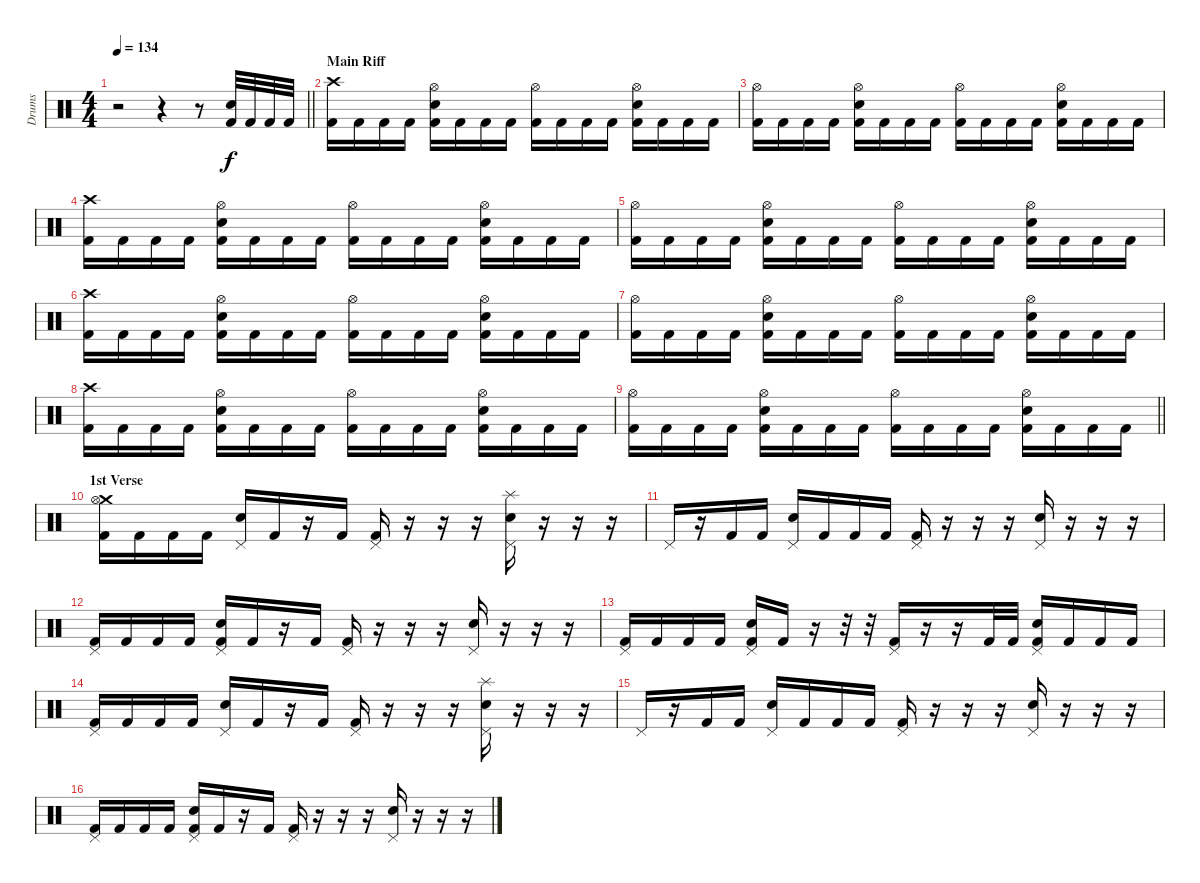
\track ("Drums" "Drums") {instrument percussion}
\staff {score}
\articulation defaults
\ts (4 4)
\tempo 134
\clef neutral
\barLineRight lightlight
\ks c
r.2{dy f} r.4 r.8 ("Snare (hit) 2" "Kick (hit) 2").32 "Kick (hit) 2".32 "Kick (hit) 2".32 "Kick (hit) 2".32 |
\section ("" "Main Riff")
("Crash high (hit)" "Kick (hit) 2").16 "Kick (hit) 2".16 "Kick (hit) 2".16 "Kick (hit) 2".16 ("Hi-Hat (open)" "Snare (hit) 2" "Kick (hit) 2").16 "Kick (hit) 2".16 "Kick (hit) 2".16 "Kick (hit) 2".16 ("Hi-Hat (open)" "Kick (hit) 2").16 "Kick (hit) 2".16 "Kick (hit) 2".16 "Kick (hit) 2".16 ("Hi-Hat (open)" "Snare (hit) 2" "Kick (hit) 2").16 "Kick (hit) 2".16 "Kick (hit) 2".16 "Kick (hit) 2".16 |
("Hi-Hat (open)" "Kick (hit) 2").16 "Kick (hit) 2".16 "Kick (hit) 2".16 "Kick (hit) 2".16 ("Hi-Hat (open)" "Snare (hit) 2" "Kick (hit) 2").16 "Kick (hit) 2".16 "Kick (hit) 2".16 "Kick (hit) 2".16 ("Hi-Hat (open)" "Kick (hit) 2").16 "Kick (hit) 2".16 "Kick (hit) 2".16 "Kick (hit) 2".16 ("Hi-Hat (open)" "Snare (hit) 2" "Kick (hit) 2").16 "Kick (hit) 2".16 "Kick (hit) 2".16 "Kick (hit) 2".16 |
("Crash high (hit)" "Kick (hit) 2").16 "Kick (hit) 2".16 "Kick (hit) 2".16 "Kick (hit) 2".16 ("Hi-Hat (open)" "Snare (hit) 2" "Kick (hit) 2").16 "Kick (hit) 2".16 "Kick (hit) 2".16 "Kick (hit) 2".16 ("Hi-Hat (open)" "Kick (hit) 2").16 "Kick (hit) 2".16 "Kick (hit) 2".16 "Kick (hit) 2".16 ("Hi-Hat (open)" "Snare (hit) 2" "Kick (hit) 2").16 "Kick (hit) 2".16 "Kick (hit) 2".16 "Kick (hit) 2".16 |
("Hi-Hat (open)" "Kick (hit) 2").16 "Kick (hit) 2".16 "Kick (hit) 2".16 "Kick (hit) 2".16 ("Hi-Hat (open)" "Snare (hit) 2" "Kick (hit) 2").16 "Kick (hit) 2".16 "Kick (hit) 2".16 "Kick (hit) 2".16 ("Hi-Hat (open)" "Kick (hit) 2").16 "Kick (hit) 2".16 "Kick (hit) 2".16 "Kick (hit) 2".16 ("Hi-Hat (open)" "Snare (hit) 2" "Kick (hit) 2").16 "Kick (hit) 2".16 "Kick (hit) 2".16 "Kick (hit) 2".16 |
("Crash high (hit)" "Kick (hit) 2").16 "Kick (hit) 2".16 "Kick (hit) 2".16 "Kick (hit) 2".16 ("Hi-Hat (open)" "Snare (hit) 2" "Kick (hit) 2").16 "Kick (hit) 2".16 "Kick (hit) 2".16 "Kick (hit) 2".16 ("Hi-Hat (open)" "Kick (hit) 2").16 "Kick (hit) 2".16 "Kick (hit) 2".16 "Kick (hit) 2".16 ("Hi-Hat (open)" "Snare (hit) 2" "Kick (hit) 2").16 "Kick (hit) 2".16 "Kick (hit) 2".16 "Kick (hit) 2".16 |
("Hi-Hat (open)" "Kick (hit) 2").16 "Kick (hit) 2".16 "Kick (hit) 2".16 "Kick (hit) 2".16 ("Hi-Hat (open)" "Snare (hit) 2" "Kick (hit) 2").16 "Kick (hit) 2".16 "Kick (hit) 2".16 "Kick (hit) 2".16 ("Hi-Hat (open)" "Kick (hit) 2").16 "Kick (hit) 2".16 "Kick (hit) 2".16 "Kick (hit) 2".16 ("Hi-Hat (open)" "Snare (hit) 2" "Kick (hit) 2").16 "Kick (hit) 2".16 "Kick (hit) 2".16 "Kick (hit) 2".16 |
("Crash high (hit)" "Kick (hit) 2").16 "Kick (hit) 2".16 "Kick (hit) 2".16 "Kick (hit) 2".16 ("Hi-Hat (open)" "Snare (hit) 2" "Kick (hit) 2").16 "Kick (hit) 2".16 "Kick (hit) 2".16 "Kick (hit) 2".16 ("Hi-Hat (open)" "Kick (hit) 2").16 "Kick (hit) 2".16 "Kick (hit) 2".16 "Kick (hit) 2".16 ("Hi-Hat (open)" "Snare (hit) 2" "Kick (hit) 2").16 "Kick (hit) 2".16 "Kick (hit) 2".16 "Kick (hit) 2".16 |
\barLineRight lightlight
("Hi-Hat (open)" "Kick (hit) 2").16 "Kick (hit) 2".16 "Kick (hit) 2".16 "Kick (hit) 2".16 ("Hi-Hat (open)" "Snare (hit) 2" "Kick (hit) 2").16 "Kick (hit) 2".16 "Kick (hit) 2".16 "Kick (hit) 2".16 ("Hi-Hat (open)" "Kick (hit) 2").16 "Kick (hit) 2".16 "Kick (hit) 2".16 "Kick (hit) 2".16 ("Hi-Hat (open)" "Snare (hit) 2" "Kick (hit) 2").16 "Kick (hit) 2".16 "Kick (hit) 2".16 "Kick (hit) 2".16 |
\section ("" "1st Verse")
("Crash medium (hit)" "Hi-Hat (open)" "Kick (hit) 2").16 "Kick (hit) 2".16 "Kick (hit) 2".16 "Kick (hit) 2".16 ("Pedal Hi-Hat (hit)" "Snare (hit) 2").16 "Kick (hit) 2".16 r.16 "Kick (hit) 2".16 ("Pedal Hi-Hat (hit)" "Kick (hit) 2").16 r.16 r.16 r.16 ("Splash (hit)" "Pedal Hi-Hat (hit)" "Snare (hit) 2").16 r.16 r.16 r.16 |
"Pedal Hi-Hat (hit)".16 r.16 "Kick (hit) 2".16 "Kick (hit) 2".16 ("Pedal Hi-Hat (hit)" "Snare (hit) 2").16 "Kick (hit) 2".16 "Kick (hit) 2".16 "Kick (hit) 2".16 ("Pedal Hi-Hat (hit)" "Kick (hit) 2").16 r.16 r.16 r.16 ("Pedal Hi-Hat (hit)" "Snare (hit) 2").16 r.16 r.16 r.16 |
("Pedal Hi-Hat (hit)" "Kick (hit) 2").16 "Kick (hit) 2".16 "Kick (hit) 2".16 "Kick (hit) 2".16 ("Pedal Hi-Hat (hit)" "Snare (hit) 2" "Kick (hit) 2").16 "Kick (hit) 2".16 r.16 "Kick (hit) 2".16 ("Pedal Hi-Hat (hit)" "Kick (hit) 2").16 r.16 r.16 r.16 ("Pedal Hi-Hat (hit)" "Snare (hit) 2").16 r.16 r.16 r.16 |
("Pedal Hi-Hat (hit)" "Kick (hit) 2").16 "Kick (hit) 2".16 "Kick (hit) 2".16 "Kick (hit) 2".16 ("Pedal Hi-Hat (hit)" "Snare (hit) 2" "Kick (hit) 2").16 "Kick (hit) 2".16 r.16 r.32 r.32 ("Pedal Hi-Hat (hit)" "Kick (hit) 2").16 r.16 r.16 "Kick (hit) 2".32 "Kick (hit) 2".32 ("Pedal Hi-Hat (hit)" "Snare (hit) 2" "Kick (hit) 2").16 "Kick (hit) 2".16 "Kick (hit) 2".16 "Kick (hit) 2".16 |
("Pedal Hi-Hat (hit)" "Kick (hit) 2").16 "Kick (hit) 2".16 "Kick (hit) 2".16 "Kick (hit) 2".16 ("Pedal Hi-Hat (hit)" "Snare (hit) 2").16 "Kick (hit) 2".16 r.16 "Kick (hit) 2".16 ("Pedal Hi-Hat (hit)" "Kick (hit) 2").16 r.16 r.16 r.16 ("Splash (hit)" "Pedal Hi-Hat (hit)" "Snare (hit) 2").16 r.16 r.16 r.16 |
"Pedal Hi-Hat (hit)".16 r.16 "Kick (hit) 2".16 "Kick (hit) 2".16 ("Pedal Hi-Hat (hit)" "Snare (hit) 2").16 "Kick (hit) 2".16 "Kick (hit) 2".16 "Kick (hit) 2".16 ("Pedal Hi-Hat (hit)" "Kick (hit) 2").16 r.16 r.16 r.16 ("Pedal Hi-Hat (hit)" "Snare (hit) 2").16 r.16 r.16 r.16 |
("Pedal Hi-Hat (hit)" "Kick (hit) 2").16 "Kick (hit) 2".16 "Kick (hit) 2".16 "Kick (hit) 2".16 ("Pedal Hi-Hat (hit)" "Snare (hit) 2" "Kick (hit) 2").16 "Kick (hit) 2".16 r.16 "Kick (hit) 2".16 ("Pedal Hi-Hat (hit)" "Kick (hit) 2").16 r.16 r.16 r.16 ("Pedal Hi-Hat (hit)" "Snare (hit) 2").16 r.16 r.16 r.16
